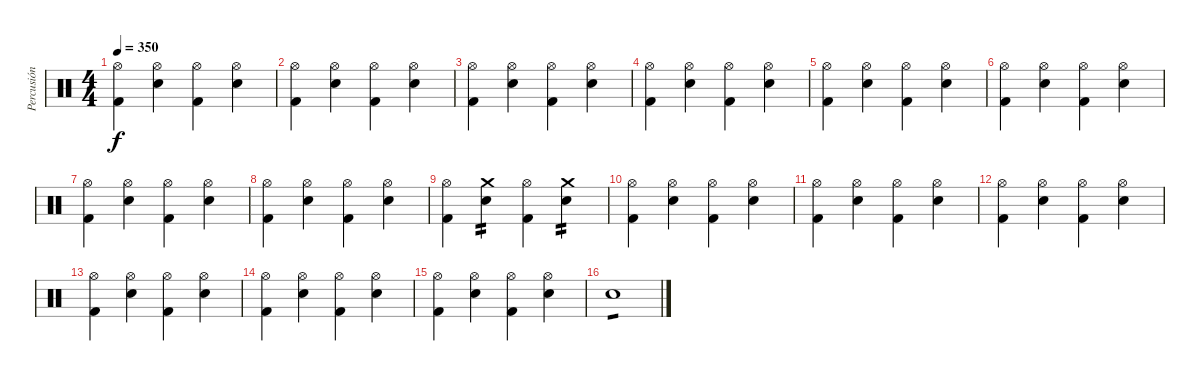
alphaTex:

\track ("Percusión" "Percusión") {instrument percussion}
\staff {score}
\articulation defaults
\ts (4 4)
\tempo 350
\clef neutral
\ks c
("Hi-Hat (open)" "Kick (hit) 2").4{dy f} ("Hi-Hat (open)" "Electric Snare (hit)").4 ("Hi-Hat (open)" "Kick (hit) 2").4 ("Hi-Hat (open)" "Electric Snare (hit)").4 |
("Hi-Hat (open)" "Kick (hit) 2").4 ("Hi-Hat (open)" "Electric Snare (hit)").4 ("Hi-Hat (open)" "Kick (hit) 2").4 ("Hi-Hat (open)" "Electric Snare (hit)").4 |
("Hi-Hat (open)" "Kick (hit) 2").4 ("Hi-Hat (open)" "Electric Snare (hit)").4 ("Hi-Hat (open)" "Kick (hit) 2").4 ("Hi-Hat (open)" "Electric Snare (hit)").4 |
("Hi-Hat (open)" "Kick (hit) 2").4 ("Hi-Hat (open)" "Electric Snare (hit)").4 ("Hi-Hat (open)" "Kick (hit) 2").4 ("Hi-Hat (open)" "Electric Snare (hit)").4 |
("Hi-Hat (open)" "Kick (hit) 2").4 ("Hi-Hat (open)" "Electric Snare (hit)").4 ("Hi-Hat (open)" "Kick (hit) 2").4 ("Hi-Hat (open)" "Electric Snare (hit)").4 |
("Hi-Hat (open)" "Kick (hit) 2").4 ("Hi-Hat (open)" "Electric Snare (hit)").4 ("Hi-Hat (open)" "Kick (hit) 2").4 ("Hi-Hat (open)" "Electric Snare (hit)").4 |
("Hi-Hat (open)" "Kick (hit) 2").4 ("Hi-Hat (open)" "Electric Snare (hit)").4 ("Hi-Hat (open)" "Kick (hit) 2").4 ("Hi-Hat (open)" "Electric Snare (hit)").4 |
("Hi-Hat (open)" "Kick (hit) 2").4 ("Hi-Hat (open)" "Electric Snare (hit)").4 ("Hi-Hat (open)" "Kick (hit) 2").4 ("Hi-Hat (open)" "Electric Snare (hit)").4 |
("Hi-Hat (open)" "Kick (hit) 2").4 ("Crash medium (hit)" "Electric Snare (hit)").4{tp 2} ("Hi-Hat (open)" "Kick (hit) 2").4 ("Crash medium (hit)" "Electric Snare (hit)").4{tp 2} |
("Hi-Hat (open)" "Kick (hit) 2").4 ("Hi-Hat (open)" "Electric Snare (hit)").4 ("Hi-Hat (open)" "Kick (hit) 2").4 ("Hi-Hat (open)" "Electric Snare (hit)").4 |
("Hi-Hat (open)" "Kick (hit) 2").4 ("Hi-Hat (open)" "Electric Snare (hit)").4 ("Hi-Hat (open)" "Kick (hit) 2").4 ("Hi-Hat (open)" "Electric Snare (hit)").4 |
("Hi-Hat (open)" "Kick (hit) 2").4 ("Hi-Hat (open)" "Electric Snare (hit)").4 ("Hi-Hat (open)" "Kick (hit) 2").4 ("Hi-Hat (open)" "Electric Snare (hit)").4 |
("Hi-Hat (open)" "Kick (hit) 2").4 ("Hi-Hat (open)" "Electric Snare (hit)").4 ("Hi-Hat (open)" "Kick (hit) 2").4 ("Hi-Hat (open)" "Electric Snare (hit)").4 |
("Hi-Hat (open)" "Kick (hit) 2").4 ("Hi-Hat (open)" "Electric Snare (hit)").4 ("Hi-Hat (open)" "Kick (hit) 2").4 ("Hi-Hat (open)" "Electric Snare (hit)").4 |
("Hi-Hat (open)" "Kick (hit) 2").4 ("Hi-Hat (open)" "Electric Snare (hit)").4 ("Hi-Hat (open)" "Kick (hit) 2").4 ("Hi-Hat (open)" "Electric Snare (hit)").4 |
"Electric Snare (hit)".1{tp 1}
